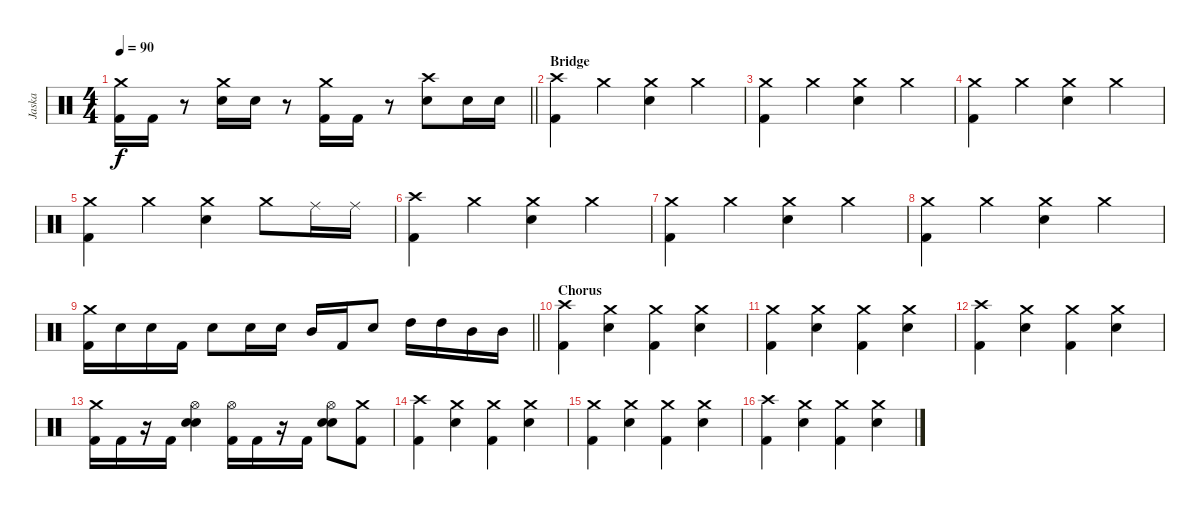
\track ("Jaska" "Jaska") {instrument percussion}
\staff {score}
\articulation defaults
\ts (4 4)
\tempo 90
\clef neutral
\barLineRight lightlight
\ks c
("Crash medium (hit)" "Kick (hit) 2").16{dy f} "Kick (hit) 2".16 r.8 ("Crash medium (hit)" "Snare (hit) 2").16 "Snare (hit) 2".16 r.8 ("Crash medium (hit)" "Kick (hit) 2").16 "Kick (hit) 2".16 r.8 ("Crash high (hit)" "Snare (hit) 2").8 "Snare (hit) 2".16 "Snare (hit) 2".16 |
\section ("" "Bridge")
("Crash high (hit)" "Kick (hit) 2").4 "Crash medium (hit)".4 ("Crash medium (hit)" "Snare (hit) 2").4 "Crash medium (hit)".4 |
("Crash medium (hit)" "Kick (hit) 2").4 "Crash medium (hit)".4 ("Crash medium (hit)" "Snare (hit) 2").4 "Crash medium (hit)".4 |
("Crash medium (hit)" "Kick (hit) 2").4 "Crash medium (hit)".4 ("Crash medium (hit)" "Snare (hit) 2").4 "Crash medium (hit)".4 |
("Crash medium (hit)" "Kick (hit) 2").4 "Crash medium (hit)".4 ("Crash medium (hit)" "Snare (hit) 2").4 "Crash medium (hit)".8 "Ride (middle)".16 "Ride (middle)".16 |
("Crash high (hit)" "Kick (hit) 2").4 "Crash medium (hit)".4 ("Crash medium (hit)" "Snare (hit) 2").4 "Crash medium (hit)".4 |
("Crash medium (hit)" "Kick (hit) 2").4 "Crash medium (hit)".4 ("Crash medium (hit)" "Snare (hit) 2").4 "Crash medium (hit)".4 |
("Crash medium (hit)" "Kick (hit) 2").4 "Crash medium (hit)".4 ("Crash medium (hit)" "Snare (hit) 2").4 "Crash medium (hit)".4 |
\barLineRight lightlight
("Crash medium (hit)" "Kick (hit) 2").16 "Snare (hit) 2".16 "Snare (hit) 2".16 "Kick (hit) 2".16 "Snare (hit) 2".8 "Snare (hit) 2".16 "Snare (hit) 2".16 "Mid Tom (hit)".16 "Kick (hit) 2".16 "Snare (hit) 2".8 "High Tom (hit)".16 "High Tom (hit)".16 "Mid Tom (hit)".16 "Mid Tom (hit)".16 |
\section ("" "Chorus")
("Crash high (hit)" "Kick (hit) 2").4 ("Crash medium (hit)" "Snare (hit) 2").4 ("Crash medium (hit)" "Kick (hit) 2").4 ("Crash medium (hit)" "Snare (hit) 2").4 |
("Crash medium (hit)" "Kick (hit) 2").4 ("Crash medium (hit)" "Snare (hit) 2").4 ("Crash medium (hit)" "Kick (hit) 2").4 ("Crash medium (hit)" "Snare (hit) 2").4 |
("Crash high (hit)" "Kick (hit) 2").4 ("Crash medium (hit)" "Snare (hit) 2").4 ("Crash medium (hit)" "Kick (hit) 2").4 ("Crash medium (hit)" "Snare (hit) 2").4 |
("Crash medium (hit)" "Kick (hit) 2").16 "Kick (hit) 2".16 r.16 "Kick (hit) 2".16 ("Hi-Hat (open)" "Snare (hit) 2" "Snare (hit) 2").4 ("Hi-Hat (open)" "Kick (hit) 2").16 "Kick (hit) 2".16 r.16 "Kick (hit) 2".16 ("Hi-Hat (open)" "Snare (hit) 2" "Snare (hit) 2").8 ("Crash medium (hit)" "Kick (hit) 2").8 |
("Crash high (hit)" "Kick (hit) 2").4 ("Crash medium (hit)" "Snare (hit) 2").4 ("Crash medium (hit)" "Kick (hit) 2").4 ("Crash medium (hit)" "Snare (hit) 2").4 |
("Crash medium (hit)" "Kick (hit) 2").4 ("Crash medium (hit)" "Snare (hit) 2").4 ("Crash medium (hit)" "Kick (hit) 2").4 ("Crash medium (hit)" "Snare (hit) 2").4 |
("Crash high (hit)" "Kick (hit) 2").4 ("Crash medium (hit)" "Snare (hit) 2").4 ("Crash medium (hit)" "Kick (hit) 2").4 ("Crash medium (hit)" "Snare (hit) 2").4
